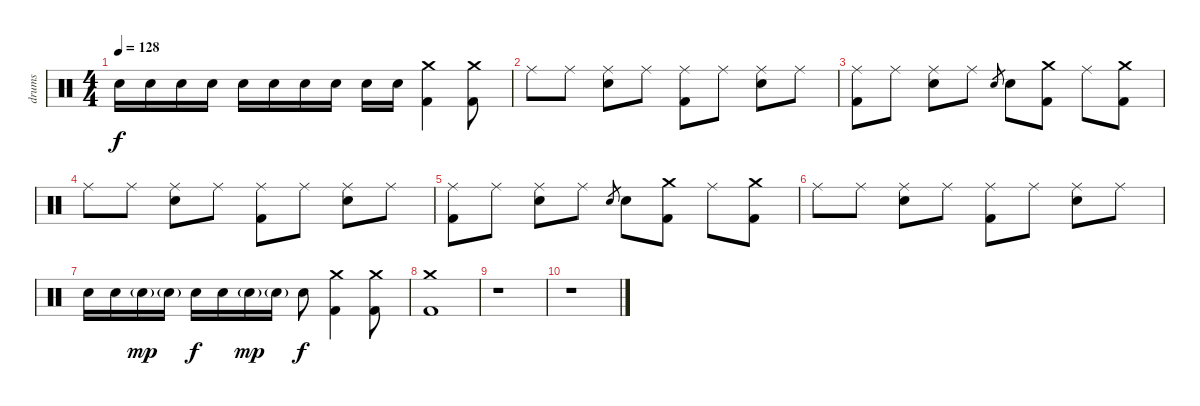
\track ("drums" "drums") {instrument percussion}
\staff {score}
\articulation defaults
\ts (4 4)
\tempo 128
\clef neutral
\ks c "Snare (hit) 2".16{dy f} "Snare (hit) 2".16 "Snare (hit) 2".16 "Snare (hit) 2".16 "Snare (hit) 2".16 "Snare (hit) 2".16 "Snare (hit) 2".16 "Snare (hit) 2".16 "Snare (hit) 2".16 "Snare (hit) 2".16
("Crash medium (hit)" "Kick (hit) 2").4 ("Crash medium (hit)" "Kick (hit) 2").8 |
"Ride (middle)".8 "Ride (middle)".8 ("Ride (middle)" "Snare (hit) 2").8 "Ride (middle)".8 ("Ride (middle)" "Kick (hit) 2").8 "Ride (middle)".8 ("Ride (middle)" "Snare (hit) 2").8 "Ride (middle)".8 |
("Ride (middle)" "Kick (hit) 2").8 "Ride (middle)".8 ("Ride (middle)" "Snare (hit) 2").8 "Ride (middle)".8 "Snare (hit) 2".8{gr} "Snare (hit) 2".8 ("Crash medium (hit)" "Kick (hit) 2").8 "Ride (middle)".8 ("Crash medium (hit)" "Kick (hit) 2").8 |
"Ride (middle)".8 "Ride (middle)".8 ("Ride (middle)" "Snare (hit) 2").8 "Ride (middle)".8 ("Ride (middle)" "Kick (hit) 2").8 "Ride (middle)".8 ("Ride (middle)" "Snare (hit) 2").8 "Ride (middle)".8 |
("Ride (middle)" "Kick (hit) 2").8 "Ride (middle)".8 ("Ride (middle)" "Snare (hit) 2").8 "Ride (middle)".8 "Snare (hit) 2".8{gr} "Snare (hit) 2".8 ("Crash medium (hit)" "Kick (hit) 2").8 "Ride (middle)".8 ("Crash medium (hit)" "Kick (hit) 2").8 |
"Ride (middle)".8 "Ride (middle)".8 ("Ride (middle)" "Snare (hit) 2").8 "Ride (middle)".8 ("Ride (middle)" "Kick (hit) 2").8 "Ride (middle)".8 ("Ride (middle)" "Snare (hit) 2").8 "Ride (middle)".8 |
"Snare (hit) 2".16 "Snare (hit) 2".16 "Snare (hit) 2"{g}.16{dy mp} "Snare (hit) 2"{g}.16 "Snare (hit) 2".16{dy f} "Snare (hit) 2".16 "Snare (hit) 2"{g}.16{dy mp} "Snare (hit) 2"{g}.16 "Snare (hit) 2".8{dy f} ("Crash medium (hit)" "Kick (hit) 2").4 ("Crash medium (hit)" "Kick (hit) 2").8 |
("Crash medium (hit)" "Kick (hit) 2").1 |
r.1 |
r.1
